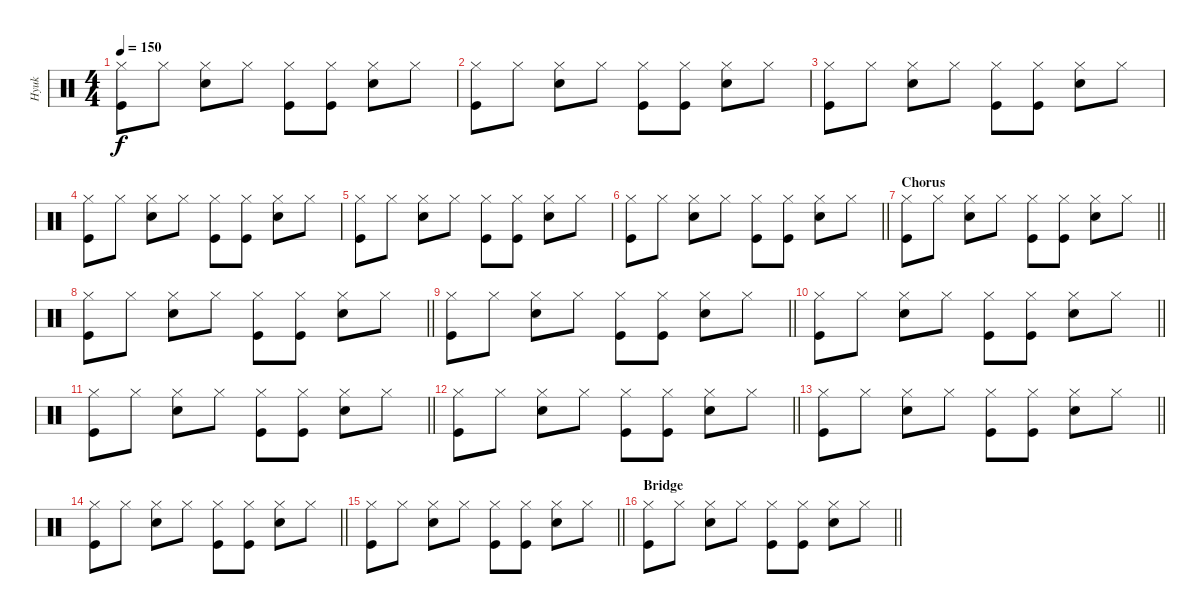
\track ("Hyuk" "Hyuk") {instrument percussion}
\staff {score}
\articulation defaults
\ts (4 4)
\tempo 150
\clef neutral
\ks c
("Hi-Hat (closed)" "Kick (hit)").8{dy f} "Hi-Hat (closed)".8 ("Hi-Hat (closed)" "Snare (hit) 2").8 "Hi-Hat (closed)".8 ("Hi-Hat (closed)" "Kick (hit)").8 ("Hi-Hat (closed)" "Kick (hit)").8 ("Hi-Hat (closed)" "Snare (hit) 2").8 "Hi-Hat (closed)".8 |
("Hi-Hat (closed)" "Kick (hit)").8 "Hi-Hat (closed)".8 ("Hi-Hat (closed)" "Snare (hit) 2").8 "Hi-Hat (closed)".8 ("Hi-Hat (closed)" "Kick (hit)").8 ("Hi-Hat (closed)" "Kick (hit)").8 ("Hi-Hat (closed)" "Snare (hit) 2").8 "Hi-Hat (closed)".8 |
("Hi-Hat (closed)" "Kick (hit)").8 "Hi-Hat (closed)".8 ("Hi-Hat (closed)" "Snare (hit) 2").8 "Hi-Hat (closed)".8 ("Hi-Hat (closed)" "Kick (hit)").8 ("Hi-Hat (closed)" "Kick (hit)").8 ("Hi-Hat (closed)" "Snare (hit) 2").8 "Hi-Hat (closed)".8 |
("Hi-Hat (closed)" "Kick (hit)").8 "Hi-Hat (closed)".8 ("Hi-Hat (closed)" "Snare (hit) 2").8 "Hi-Hat (closed)".8 ("Hi-Hat (closed)" "Kick (hit)").8 ("Hi-Hat (closed)" "Kick (hit)").8 ("Hi-Hat (closed)" "Snare (hit) 2").8 "Hi-Hat (closed)".8 |
("Hi-Hat (closed)" "Kick (hit)").8 "Hi-Hat (closed)".8 ("Hi-Hat (closed)" "Snare (hit) 2").8 "Hi-Hat (closed)".8 ("Hi-Hat (closed)" "Kick (hit)").8 ("Hi-Hat (closed)" "Kick (hit)").8 ("Hi-Hat (closed)" "Snare (hit) 2").8 "Hi-Hat (closed)".8 |
\barLineRight lightlight
("Hi-Hat (closed)" "Kick (hit)").8 "Hi-Hat (closed)".8 ("Hi-Hat (closed)" "Snare (hit) 2").8 "Hi-Hat (closed)".8 ("Hi-Hat (closed)" "Kick (hit)").8 ("Hi-Hat (closed)" "Kick (hit)").8 ("Hi-Hat (closed)" "Snare (hit) 2").8 "Hi-Hat (closed)".8 |
\section ("" "Chorus")
\barLineRight lightlight
("Hi-Hat (closed)" "Kick (hit)").8 "Hi-Hat (closed)".8 ("Hi-Hat (closed)" "Snare (hit) 2").8 "Hi-Hat (closed)".8 ("Hi-Hat (closed)" "Kick (hit)").8 ("Hi-Hat (closed)" "Kick (hit)").8 ("Hi-Hat (closed)" "Snare (hit) 2").8 "Hi-Hat (closed)".8 |
\barLineRight lightlight
("Hi-Hat (closed)" "Kick (hit)").8 "Hi-Hat (closed)".8 ("Hi-Hat (closed)" "Snare (hit) 2").8 "Hi-Hat (closed)".8 ("Hi-Hat (closed)" "Kick (hit)").8 ("Hi-Hat (closed)" "Kick (hit)").8 ("Hi-Hat (closed)" "Snare (hit) 2").8 "Hi-Hat (closed)".8 |
\barLineRight lightlight
("Hi-Hat (closed)" "Kick (hit)").8 "Hi-Hat (closed)".8 ("Hi-Hat (closed)" "Snare (hit) 2").8 "Hi-Hat (closed)".8 ("Hi-Hat (closed)" "Kick (hit)").8 ("Hi-Hat (closed)" "Kick (hit)").8 ("Hi-Hat (closed)" "Snare (hit) 2").8 "Hi-Hat (closed)".8 |
\barLineRight lightlight
("Hi-Hat (closed)" "Kick (hit)").8 "Hi-Hat (closed)".8 ("Hi-Hat (closed)" "Snare (hit) 2").8 "Hi-Hat (closed)".8 ("Hi-Hat (closed)" "Kick (hit)").8 ("Hi-Hat (closed)" "Kick (hit)").8 ("Hi-Hat (closed)" "Snare (hit) 2").8 "Hi-Hat (closed)".8 |
\barLineRight lightlight
("Hi-Hat (closed)" "Kick (hit)").8 "Hi-Hat (closed)".8 ("Hi-Hat (closed)" "Snare (hit) 2").8 "Hi-Hat (closed)".8 ("Hi-Hat (closed)" "Kick (hit)").8 ("Hi-Hat (closed)" "Kick (hit)").8 ("Hi-Hat (closed)" "Snare (hit) 2").8 "Hi-Hat (closed)".8 |
\barLineRight lightlight
("Hi-Hat (closed)" "Kick (hit)").8 "Hi-Hat (closed)".8 ("Hi-Hat (closed)" "Snare (hit) 2").8 "Hi-Hat (closed)".8 ("Hi-Hat (closed)" "Kick (hit)").8 ("Hi-Hat (closed)" "Kick (hit)").8 ("Hi-Hat (closed)" "Snare (hit) 2").8 "Hi-Hat (closed)".8 |
\barLineRight lightlight
("Hi-Hat (closed)" "Kick (hit)").8 "Hi-Hat (closed)".8 ("Hi-Hat (closed)" "Snare (hit) 2").8 "Hi-Hat (closed)".8 ("Hi-Hat (closed)" "Kick (hit)").8 ("Hi-Hat (closed)" "Kick (hit)").8 ("Hi-Hat (closed)" "Snare (hit) 2").8 "Hi-Hat (closed)".8 |
\barLineRight lightlight
("Hi-Hat (closed)" "Kick (hit)").8 "Hi-Hat (closed)".8 ("Hi-Hat (closed)" "Snare (hit) 2").8 "Hi-Hat (closed)".8 ("Hi-Hat (closed)" "Kick (hit)").8 ("Hi-Hat (closed)" "Kick (hit)").8 ("Hi-Hat (closed)" "Snare (hit) 2").8 "Hi-Hat (closed)".8 |
\barLineRight lightlight
("Hi-Hat (closed)" "Kick (hit)").8 "Hi-Hat (closed)".8 ("Hi-Hat (closed)" "Snare (hit) 2").8 "Hi-Hat (closed)".8 ("Hi-Hat (closed)" "Kick (hit)").8 ("Hi-Hat (closed)" "Kick (hit)").8 ("Hi-Hat (closed)" "Snare (hit) 2").8 "Hi-Hat (closed)".8 |
\section ("" "Bridge")
\barLineRight lightlight
("Hi-Hat (closed)" "Kick (hit)").8 "Hi-Hat (closed)".8 ("Hi-Hat (closed)" "Snare (hit) 2").8 "Hi-Hat (closed)".8 ("Hi-Hat (closed)" "Kick (hit)").8 ("Hi-Hat (closed)" "Kick (hit)").8 ("Hi-Hat (closed)" "Snare (hit) 2").8 "Hi-Hat (closed)".8
